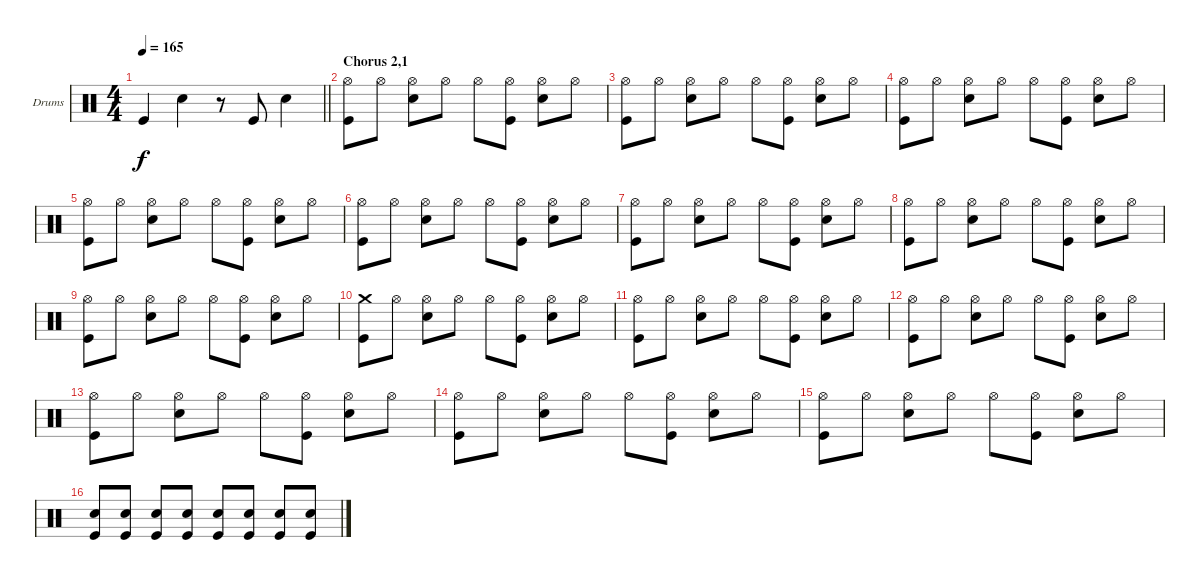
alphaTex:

\bracketExtendMode groupsimilarinstruments
\firstSystemTrackNameOrientation horizontal
\otherSystemsTrackNameOrientation horizontal
\track ("Fabrizio" "Drums") {instrument percussion}
\staff {score}
\articulation defaults
\ts (4 4)
\tempo 165
\clef neutral
\barLineRight lightlight
\ks c "Kick (hit)".4{dy f} "Snare (hit) 2".4
r.8 "Kick (hit)".8 "Snare (hit) 2".4 |
\section ("" "Chorus 2,1")
("Kick (hit)" "Hi-Hat (open)").8 "Hi-Hat (open)".8 ("Snare (hit) 2" "Hi-Hat (open)").8 "Hi-Hat (open)".8 "Hi-Hat (open)".8 ("Kick (hit)" "Hi-Hat (open)").8 ("Snare (hit) 2" "Hi-Hat (open)").8 "Hi-Hat (open)".8 |
("Kick (hit)" "Hi-Hat (open)").8 "Hi-Hat (open)".8 ("Snare (hit) 2" "Hi-Hat (open)").8 "Hi-Hat (open)".8 "Hi-Hat (open)".8 ("Kick (hit)" "Hi-Hat (open)").8 ("Snare (hit) 2" "Hi-Hat (open)").8 "Hi-Hat (open)".8 |
("Kick (hit)" "Hi-Hat (open)").8 "Hi-Hat (open)".8 ("Snare (hit) 2" "Hi-Hat (open)").8 "Hi-Hat (open)".8 "Hi-Hat (open)".8 ("Kick (hit)" "Hi-Hat (open)").8 ("Snare (hit) 2" "Hi-Hat (open)").8 "Hi-Hat (open)".8 |
("Kick (hit)" "Hi-Hat (open)").8 "Hi-Hat (open)".8 ("Snare (hit) 2" "Hi-Hat (open)").8 "Hi-Hat (open)".8 "Hi-Hat (open)".8 ("Kick (hit)" "Hi-Hat (open)").8 ("Snare (hit) 2" "Hi-Hat (open)").8 "Hi-Hat (open)".8 |
("Kick (hit)" "Hi-Hat (open)").8 "Hi-Hat (open)".8 ("Snare (hit) 2" "Hi-Hat (open)").8 "Hi-Hat (open)".8 "Hi-Hat (open)".8 ("Kick (hit)" "Hi-Hat (open)").8 ("Snare (hit) 2" "Hi-Hat (open)").8 "Hi-Hat (open)".8 |
("Kick (hit)" "Hi-Hat (open)").8 "Hi-Hat (open)".8 ("Snare (hit) 2" "Hi-Hat (open)").8 "Hi-Hat (open)".8 "Hi-Hat (open)".8 ("Kick (hit)" "Hi-Hat (open)").8 ("Snare (hit) 2" "Hi-Hat (open)").8 "Hi-Hat (open)".8 |
("Kick (hit)" "Hi-Hat (open)").8 "Hi-Hat (open)".8 ("Snare (hit) 2" "Hi-Hat (open)").8 "Hi-Hat (open)".8 "Hi-Hat (open)".8 ("Kick (hit)" "Hi-Hat (open)").8 ("Snare (hit) 2" "Hi-Hat (open)").8 "Hi-Hat (open)".8 |
("Kick (hit)" "Hi-Hat (open)").8 "Hi-Hat (open)".8 ("Snare (hit) 2" "Hi-Hat (open)").8 "Hi-Hat (open)".8 "Hi-Hat (open)".8 ("Kick (hit)" "Hi-Hat (open)").8 ("Snare (hit) 2" "Hi-Hat (open)").8 "Hi-Hat (open)".8 |
("Kick (hit)" "Crash medium (hit)").8 "Hi-Hat (open)".8 ("Snare (hit) 2" "Hi-Hat (open)").8 "Hi-Hat (open)".8 "Hi-Hat (open)".8 ("Kick (hit)" "Hi-Hat (open)").8 ("Snare (hit) 2" "Hi-Hat (open)").8 "Hi-Hat (open)".8 |
("Kick (hit)" "Hi-Hat (open)").8 "Hi-Hat (open)".8 ("Snare (hit) 2" "Hi-Hat (open)").8 "Hi-Hat (open)".8 "Hi-Hat (open)".8 ("Kick (hit)" "Hi-Hat (open)").8 ("Snare (hit) 2" "Hi-Hat (open)").8 "Hi-Hat (open)".8 |
("Kick (hit)" "Hi-Hat (open)").8 "Hi-Hat (open)".8 ("Snare (hit) 2" "Hi-Hat (open)").8 "Hi-Hat (open)".8 "Hi-Hat (open)".8 ("Kick (hit)" "Hi-Hat (open)").8 ("Snare (hit) 2" "Hi-Hat (open)").8 "Hi-Hat (open)".8 |
("Kick (hit)" "Hi-Hat (open)").8 "Hi-Hat (open)".8 ("Snare (hit) 2" "Hi-Hat (open)").8 "Hi-Hat (open)".8 "Hi-Hat (open)".8 ("Kick (hit)" "Hi-Hat (open)").8 ("Snare (hit) 2" "Hi-Hat (open)").8 "Hi-Hat (open)".8 |
("Kick (hit)" "Hi-Hat (open)").8 "Hi-Hat (open)".8 ("Snare (hit) 2" "Hi-Hat (open)").8 "Hi-Hat (open)".8 "Hi-Hat (open)".8 ("Kick (hit)" "Hi-Hat (open)").8 ("Snare (hit) 2" "Hi-Hat (open)").8 "Hi-Hat (open)".8 |
("Kick (hit)" "Hi-Hat (open)").8 "Hi-Hat (open)".8 ("Snare (hit) 2" "Hi-Hat (open)").8 "Hi-Hat (open)".8 "Hi-Hat (open)".8 ("Kick (hit)" "Hi-Hat (open)").8 ("Snare (hit) 2" "Hi-Hat (open)").8 "Hi-Hat (open)".8 |
("Snare (hit) 2" "Kick (hit)").8 ("Snare (hit) 2" "Kick (hit)").8 ("Snare (hit) 2" "Kick (hit)").8 ("Snare (hit) 2" "Kick (hit)").8 ("Snare (hit) 2" "Kick (hit)").8 ("Snare (hit) 2" "Kick (hit)").8 ("Snare (hit) 2" "Kick (hit)").8 ("Snare (hit) 2" "Kick (hit)").8
